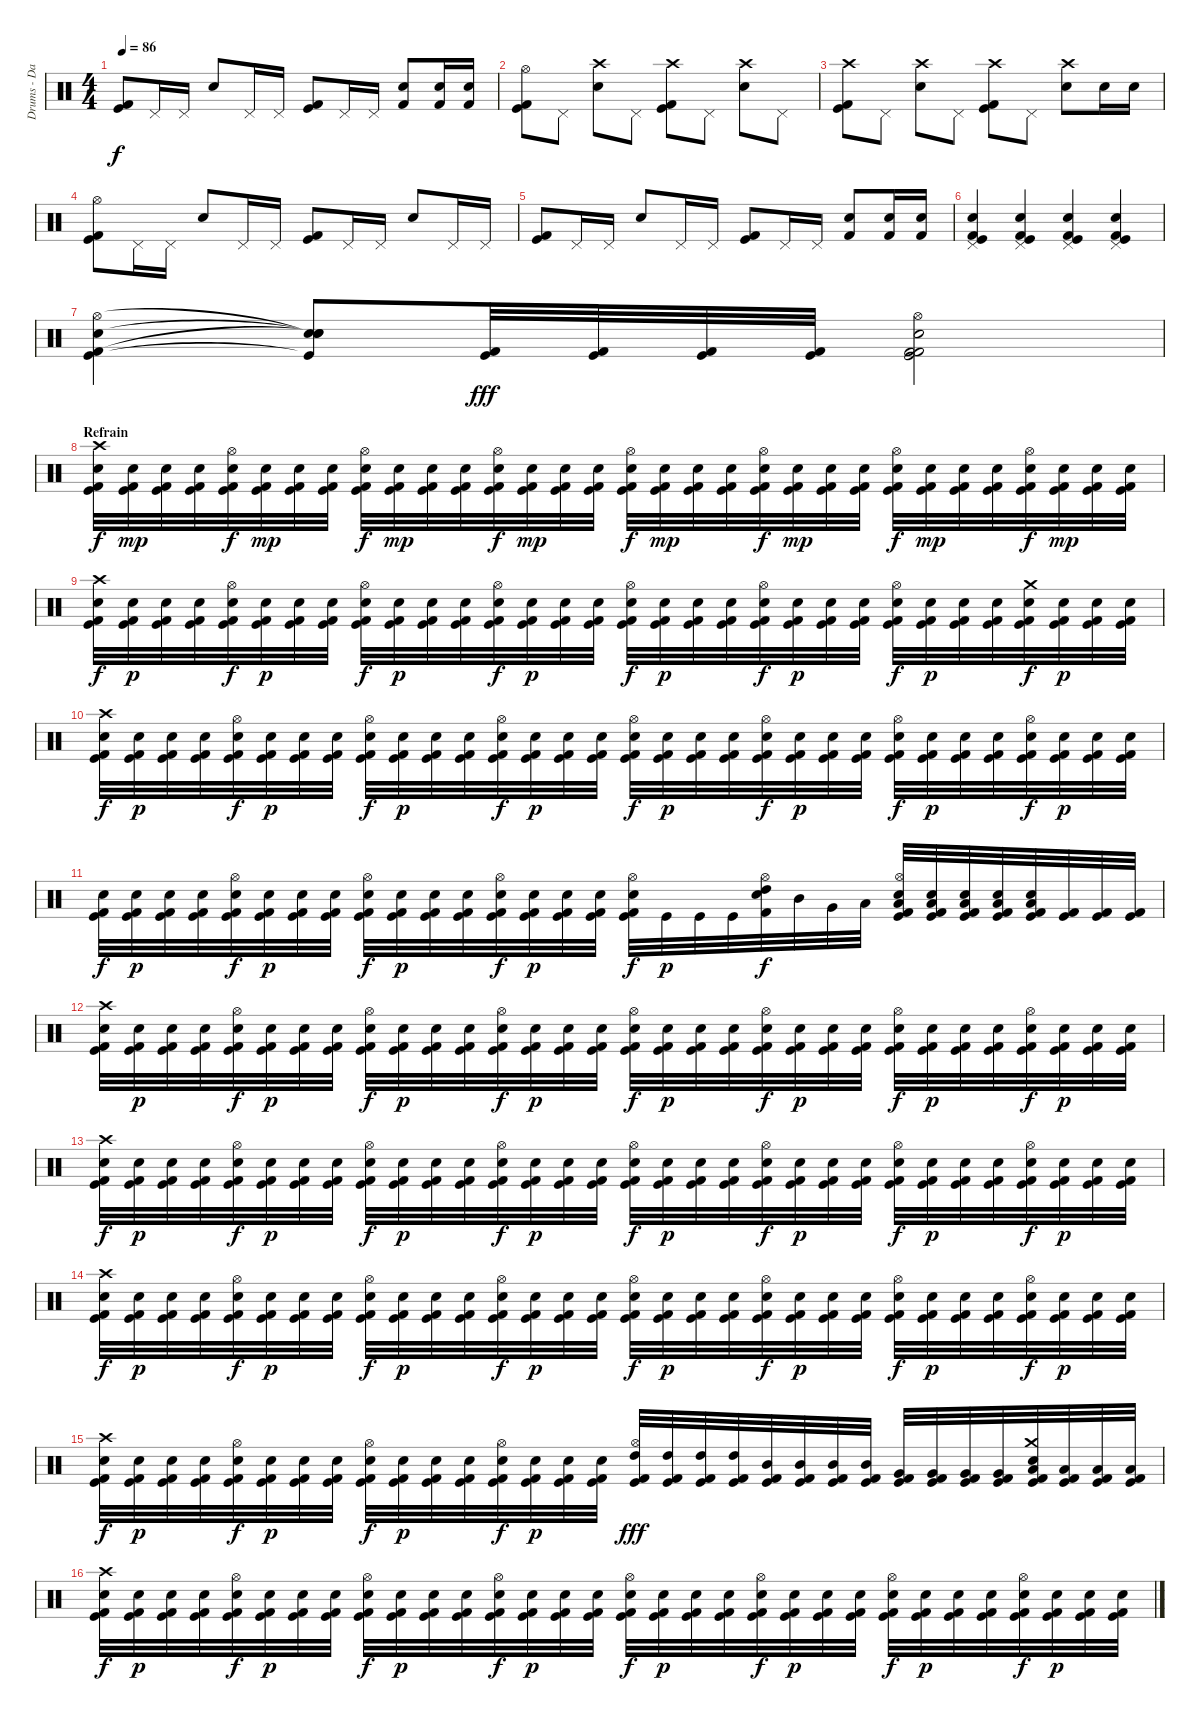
\track ("Drums - Daniel Zimmermann" "Drums - Da") {instrument percussion}
\staff {score}
\articulation defaults
\ts (4 4)
\tempo 86
\clef neutral
\ks c
("Kick (hit)" "Kick (hit) 2").8{dy f} "Pedal Hi-Hat (hit)".16 "Pedal Hi-Hat (hit)".16 "Electric Snare (hit)".8 "Pedal Hi-Hat (hit)".16 "Pedal Hi-Hat (hit)".16 ("Kick (hit)" "Kick (hit) 2").8 "Pedal Hi-Hat (hit)".16 "Pedal Hi-Hat (hit)".16 ("Kick (hit) 2" "Electric Snare (hit)").8 ("Kick (hit) 2" "Electric Snare (hit)").16 ("Kick (hit) 2" "Electric Snare (hit)").16 |
("Hi-Hat (open)" "Kick (hit)" "Kick (hit) 2").8 "Pedal Hi-Hat (hit)".8 ("Crash high (hit)" "Electric Snare (hit)").8 "Pedal Hi-Hat (hit)".8 ("Crash high (hit)" "Kick (hit)" "Kick (hit) 2").8 "Pedal Hi-Hat (hit)".8 ("Crash high (hit)" "Electric Snare (hit)").8 "Pedal Hi-Hat (hit)".8 |
("Crash high (hit)" "Kick (hit)" "Kick (hit) 2").8 "Pedal Hi-Hat (hit)".8 ("Crash high (hit)" "Electric Snare (hit)").8 "Pedal Hi-Hat (hit)".8 ("Crash high (hit)" "Kick (hit)" "Kick (hit) 2").8 "Pedal Hi-Hat (hit)".8 ("Crash high (hit)" "Electric Snare (hit)").8 "Electric Snare (hit)".16 "Electric Snare (hit)".16 |
("Kick (hit)" "Kick (hit) 2" "Hi-Hat (open)").8 "Pedal Hi-Hat (hit)".16 "Pedal Hi-Hat (hit)".16 "Electric Snare (hit)".8 "Pedal Hi-Hat (hit)".16 "Pedal Hi-Hat (hit)".16 ("Kick (hit)" "Kick (hit) 2").8 "Pedal Hi-Hat (hit)".16 "Pedal Hi-Hat (hit)".16 "Electric Snare (hit)".8 "Pedal Hi-Hat (hit)".16 "Pedal Hi-Hat (hit)".16 |
("Kick (hit)" "Kick (hit) 2").8 "Pedal Hi-Hat (hit)".16 "Pedal Hi-Hat (hit)".16 "Electric Snare (hit)".8 "Pedal Hi-Hat (hit)".16 "Pedal Hi-Hat (hit)".16 ("Kick (hit)" "Kick (hit) 2").8 "Pedal Hi-Hat (hit)".16 "Pedal Hi-Hat (hit)".16 ("Kick (hit) 2" "Electric Snare (hit)").8 ("Kick (hit) 2" "Electric Snare (hit)").16 ("Kick (hit) 2" "Electric Snare (hit)").16 |
("Kick (hit)" "Kick (hit) 2" "Electric Snare (hit)" "Pedal Hi-Hat (hit)").4 ("Kick (hit)" "Kick (hit) 2" "Electric Snare (hit)" "Pedal Hi-Hat (hit)").4 ("Kick (hit)" "Kick (hit) 2" "Electric Snare (hit)" "Pedal Hi-Hat (hit)").4 ("Kick (hit)" "Kick (hit) 2" "Electric Snare (hit)" "Pedal Hi-Hat (hit)").4 |
("Kick (hit)" "Kick (hit) 2" "Electric Snare (hit)" "Hi-Hat (open)").4 ("Kick (hit)"{t} "Snare (hit)"{t} "Snare (hit)"{t} "Snare (hit)"{t}).8 ("Kick (hit)" "Kick (hit) 2").32{dy fff} ("Kick (hit)" "Kick (hit) 2").32 ("Kick (hit)" "Kick (hit) 2").32 ("Kick (hit)" "Kick (hit) 2").32 ("Kick (hit)" "Kick (hit) 2" "Kick (hit) 2" "Electric Snare (hit)" "Hi-Hat (open)").2 |
\section ("" "Refrain")
("Kick (hit)" "Kick (hit) 2" "Electric Snare (hit)" "Crash high (hit)").32{dy f} ("Kick (hit)" "Kick (hit) 2" "Electric Snare (hit)").32{dy mp} ("Kick (hit)" "Kick (hit) 2" "Electric Snare (hit)").32 ("Kick (hit)" "Kick (hit) 2" "Electric Snare (hit)").32 ("Kick (hit)" "Kick (hit) 2" "Electric Snare (hit)" "Hi-Hat (open)").32{dy f} ("Kick (hit)" "Kick (hit) 2" "Electric Snare (hit)").32{dy mp} ("Kick (hit)" "Kick (hit) 2" "Electric Snare (hit)").32 ("Kick (hit)" "Kick (hit) 2" "Electric Snare (hit)").32 ("Kick (hit)" "Kick (hit) 2" "Electric Snare (hit)" "Hi-Hat (open)").32{dy f} ("Kick (hit)" "Kick (hit) 2" "Electric Snare (hit)").32{dy mp} ("Kick (hit)" "Kick (hit) 2" "Electric Snare (hit)").32 ("Kick (hit)" "Kick (hit) 2" "Electric Snare (hit)").32 ("Kick (hit)" "Kick (hit) 2" "Electric Snare (hit)" "Hi-Hat (open)").32{dy f} ("Kick (hit)" "Kick (hit) 2" "Electric Snare (hit)").32{dy mp} ("Kick (hit)" "Kick (hit) 2" "Electric Snare (hit)").32 ("Kick (hit)" "Kick (hit) 2" "Electric Snare (hit)").32 ("Kick (hit)" "Kick (hit) 2" "Electric Snare (hit)" "Hi-Hat (open)").32{dy f} ("Kick (hit)" "Kick (hit) 2" "Electric Snare (hit)").32{dy mp} ("Kick (hit)" "Kick (hit) 2" "Electric Snare (hit)").32 ("Kick (hit)" "Kick (hit) 2" "Electric Snare (hit)").32 ("Kick (hit)" "Kick (hit) 2" "Electric Snare (hit)" "Hi-Hat (open)").32{dy f} ("Kick (hit)" "Kick (hit) 2" "Electric Snare (hit)").32{dy mp} ("Kick (hit)" "Kick (hit) 2" "Electric Snare (hit)").32 ("Kick (hit)" "Kick (hit) 2" "Electric Snare (hit)").32 ("Kick (hit)" "Kick (hit) 2" "Electric Snare (hit)" "Hi-Hat (open)").32{dy f} ("Kick (hit)" "Kick (hit) 2" "Electric Snare (hit)").32{dy mp} ("Kick (hit)" "Kick (hit) 2" "Electric Snare (hit)").32 ("Kick (hit)" "Kick (hit) 2" "Electric Snare (hit)").32 ("Kick (hit)" "Kick (hit) 2" "Electric Snare (hit)" "Hi-Hat (open)").32{dy f} ("Kick (hit)" "Kick (hit) 2" "Electric Snare (hit)").32{dy mp} ("Kick (hit)" "Kick (hit) 2" "Electric Snare (hit)").32 ("Kick (hit)" "Kick (hit) 2" "Electric Snare (hit)").32 |
("Kick (hit)" "Kick (hit) 2" "Electric Snare (hit)" "Crash high (hit)").32{dy f} ("Kick (hit)" "Kick (hit) 2" "Electric Snare (hit)").32{dy p} ("Kick (hit)" "Kick (hit) 2" "Electric Snare (hit)").32 ("Kick (hit)" "Kick (hit) 2" "Electric Snare (hit)").32 ("Kick (hit)" "Kick (hit) 2" "Electric Snare (hit)" "Hi-Hat (open)").32{dy f} ("Kick (hit)" "Kick (hit) 2" "Electric Snare (hit)").32{dy p} ("Kick (hit)" "Kick (hit) 2" "Electric Snare (hit)").32 ("Kick (hit)" "Kick (hit) 2" "Electric Snare (hit)").32 ("Kick (hit)" "Kick (hit) 2" "Electric Snare (hit)" "Hi-Hat (open)").32{dy f} ("Kick (hit)" "Kick (hit) 2" "Electric Snare (hit)").32{dy p} ("Kick (hit)" "Kick (hit) 2" "Electric Snare (hit)").32 ("Kick (hit)" "Kick (hit) 2" "Electric Snare (hit)").32 ("Kick (hit)" "Kick (hit) 2" "Electric Snare (hit)" "Hi-Hat (open)").32{dy f} ("Kick (hit)" "Kick (hit) 2" "Electric Snare (hit)").32{dy p} ("Kick (hit)" "Kick (hit) 2" "Electric Snare (hit)").32 ("Kick (hit)" "Kick (hit) 2" "Electric Snare (hit)").32 ("Kick (hit)" "Kick (hit) 2" "Electric Snare (hit)" "Hi-Hat (open)").32{dy f} ("Kick (hit)" "Kick (hit) 2" "Electric Snare (hit)").32{dy p} ("Kick (hit)" "Kick (hit) 2" "Electric Snare (hit)").32 ("Kick (hit)" "Kick (hit) 2" "Electric Snare (hit)").32 ("Kick (hit)" "Kick (hit) 2" "Electric Snare (hit)" "Hi-Hat (open)").32{dy f} ("Kick (hit)" "Kick (hit) 2" "Electric Snare (hit)").32{dy p} ("Kick (hit)" "Kick (hit) 2" "Electric Snare (hit)").32 ("Kick (hit)" "Kick (hit) 2" "Electric Snare (hit)").32 ("Kick (hit)" "Kick (hit) 2" "Electric Snare (hit)" "Hi-Hat (open)").32{dy f} ("Kick (hit)" "Kick (hit) 2" "Electric Snare (hit)").32{dy p} ("Kick (hit)" "Kick (hit) 2" "Electric Snare (hit)").32 ("Kick (hit)" "Kick (hit) 2" "Electric Snare (hit)").32 ("Kick (hit)" "Kick (hit) 2" "Electric Snare (hit)" "Crash medium (hit)").32{dy f} ("Kick (hit)" "Kick (hit) 2" "Electric Snare (hit)").32{dy p} ("Kick (hit)" "Kick (hit) 2" "Electric Snare (hit)").32 ("Kick (hit)" "Kick (hit) 2" "Electric Snare (hit)").32 |
("Kick (hit)" "Kick (hit) 2" "Electric Snare (hit)" "Crash high (hit)").32{dy f} ("Kick (hit)" "Kick (hit) 2" "Electric Snare (hit)").32{dy p} ("Kick (hit)" "Kick (hit) 2" "Electric Snare (hit)").32 ("Kick (hit)" "Kick (hit) 2" "Electric Snare (hit)").32 ("Kick (hit)" "Kick (hit) 2" "Electric Snare (hit)" "Hi-Hat (open)").32{dy f} ("Kick (hit)" "Kick (hit) 2" "Electric Snare (hit)").32{dy p} ("Kick (hit)" "Kick (hit) 2" "Electric Snare (hit)").32 ("Kick (hit)" "Kick (hit) 2" "Electric Snare (hit)").32 ("Kick (hit)" "Kick (hit) 2" "Electric Snare (hit)" "Hi-Hat (open)").32{dy f} ("Kick (hit)" "Kick (hit) 2" "Electric Snare (hit)").32{dy p} ("Kick (hit)" "Kick (hit) 2" "Electric Snare (hit)").32 ("Kick (hit)" "Kick (hit) 2" "Electric Snare (hit)").32 ("Kick (hit)" "Kick (hit) 2" "Electric Snare (hit)" "Hi-Hat (open)").32{dy f} ("Kick (hit)" "Kick (hit) 2" "Electric Snare (hit)").32{dy p} ("Kick (hit)" "Kick (hit) 2" "Electric Snare (hit)").32 ("Kick (hit)" "Kick (hit) 2" "Electric Snare (hit)").32 ("Kick (hit)" "Kick (hit) 2" "Electric Snare (hit)" "Hi-Hat (open)").32{dy f} ("Kick (hit)" "Kick (hit) 2" "Electric Snare (hit)").32{dy p} ("Kick (hit)" "Kick (hit) 2" "Electric Snare (hit)").32 ("Kick (hit)" "Kick (hit) 2" "Electric Snare (hit)").32 ("Kick (hit)" "Kick (hit) 2" "Electric Snare (hit)" "Hi-Hat (open)").32{dy f} ("Kick (hit)" "Kick (hit) 2" "Electric Snare (hit)").32{dy p} ("Kick (hit)" "Kick (hit) 2" "Electric Snare (hit)").32 ("Kick (hit)" "Kick (hit) 2" "Electric Snare (hit)").32 ("Kick (hit)" "Kick (hit) 2" "Electric Snare (hit)" "Hi-Hat (open)").32{dy f} ("Kick (hit)" "Kick (hit) 2" "Electric Snare (hit)").32{dy p} ("Kick (hit)" "Kick (hit) 2" "Electric Snare (hit)").32 ("Kick (hit)" "Kick (hit) 2" "Electric Snare (hit)").32 ("Kick (hit)" "Kick (hit) 2" "Electric Snare (hit)" "Hi-Hat (open)").32{dy f} ("Kick (hit)" "Kick (hit) 2" "Electric Snare (hit)").32{dy p} ("Kick (hit)" "Kick (hit) 2" "Electric Snare (hit)").32 ("Kick (hit)" "Kick (hit) 2" "Electric Snare (hit)").32 |
("Kick (hit)" "Kick (hit) 2" "Electric Snare (hit)").32{dy f} ("Kick (hit)" "Kick (hit) 2" "Electric Snare (hit)").32{dy p} ("Kick (hit)" "Kick (hit) 2" "Electric Snare (hit)").32 ("Kick (hit)" "Kick (hit) 2" "Electric Snare (hit)").32 ("Kick (hit)" "Kick (hit) 2" "Electric Snare (hit)" "Hi-Hat (open)").32{dy f} ("Kick (hit)" "Kick (hit) 2" "Electric Snare (hit)").32{dy p} ("Kick (hit)" "Kick (hit) 2" "Electric Snare (hit)").32 ("Kick (hit)" "Kick (hit) 2" "Electric Snare (hit)").32 ("Kick (hit)" "Kick (hit) 2" "Electric Snare (hit)" "Hi-Hat (open)").32{dy f} ("Kick (hit)" "Kick (hit) 2" "Electric Snare (hit)").32{dy p} ("Kick (hit)" "Kick (hit) 2" "Electric Snare (hit)").32 ("Kick (hit)" "Kick (hit) 2" "Electric Snare (hit)").32 ("Kick (hit)" "Kick (hit) 2" "Electric Snare (hit)" "Hi-Hat (open)").32{dy f} ("Kick (hit)" "Kick (hit) 2" "Electric Snare (hit)").32{dy p} ("Kick (hit)" "Kick (hit) 2" "Electric Snare (hit)").32 ("Kick (hit)" "Kick (hit) 2" "Electric Snare (hit)").32 ("Kick (hit)" "Kick (hit) 2" "Electric Snare (hit)" "Hi-Hat (open)").32{dy f} "Kick (hit)".32{dy p} "Kick (hit)".32 "Kick (hit)".32 ("High Tom (hit)" "Kick (hit) 2" "Electric Snare (hit)" "Hi-Hat (open)").32{dy f} "Mid Tom (hit)".32 "Very Low Tom (hit)".32 "Low Floor Tom (hit)".32 ("Kick (hit)" "Kick (hit) 2" "Electric Snare (hit)" "Hi-Hat (open)" "Low Floor Tom (hit)").32 ("Kick (hit)" "Kick (hit) 2" "Electric Snare (hit)" "Low Floor Tom (hit)").32 ("Kick (hit)" "Kick (hit) 2" "Electric Snare (hit)" "Low Floor Tom (hit)").32 ("Kick (hit)" "Kick (hit) 2" "Electric Snare (hit)" "Low Floor Tom (hit)").32 ("Kick (hit)" "Kick (hit) 2" "Electric Snare (hit)" "Low Floor Tom (hit)").32 ("Kick (hit)" "Kick (hit) 2").32 ("Kick (hit)" "Kick (hit) 2").32 ("Kick (hit)" "Kick (hit) 2").32 |
("Kick (hit)" "Kick (hit) 2" "Electric Snare (hit)" "Crash high (hit)").32 ("Kick (hit)" "Kick (hit) 2" "Electric Snare (hit)").32{dy p} ("Kick (hit)" "Kick (hit) 2" "Electric Snare (hit)").32 ("Kick (hit)" "Kick (hit) 2" "Electric Snare (hit)").32 ("Kick (hit)" "Kick (hit) 2" "Electric Snare (hit)" "Hi-Hat (open)").32{dy f} ("Kick (hit)" "Kick (hit) 2" "Electric Snare (hit)").32{dy p} ("Kick (hit)" "Kick (hit) 2" "Electric Snare (hit)").32 ("Kick (hit)" "Kick (hit) 2" "Electric Snare (hit)").32 ("Kick (hit)" "Kick (hit) 2" "Electric Snare (hit)" "Hi-Hat (open)").32{dy f} ("Kick (hit)" "Kick (hit) 2" "Electric Snare (hit)").32{dy p} ("Kick (hit)" "Kick (hit) 2" "Electric Snare (hit)").32 ("Kick (hit)" "Kick (hit) 2" "Electric Snare (hit)").32 ("Kick (hit)" "Kick (hit) 2" "Electric Snare (hit)" "Hi-Hat (open)").32{dy f} ("Kick (hit)" "Kick (hit) 2" "Electric Snare (hit)").32{dy p} ("Kick (hit)" "Kick (hit) 2" "Electric Snare (hit)").32 ("Kick (hit)" "Kick (hit) 2" "Electric Snare (hit)").32 ("Kick (hit)" "Kick (hit) 2" "Electric Snare (hit)" "Hi-Hat (open)").32{dy f} ("Kick (hit)" "Kick (hit) 2" "Electric Snare (hit)").32{dy p} ("Kick (hit)" "Kick (hit) 2" "Electric Snare (hit)").32 ("Kick (hit)" "Kick (hit) 2" "Electric Snare (hit)").32 ("Kick (hit)" "Kick (hit) 2" "Electric Snare (hit)" "Hi-Hat (open)").32{dy f} ("Kick (hit)" "Kick (hit) 2" "Electric Snare (hit)").32{dy p} ("Kick (hit)" "Kick (hit) 2" "Electric Snare (hit)").32 ("Kick (hit)" "Kick (hit) 2" "Electric Snare (hit)").32 ("Kick (hit)" "Kick (hit) 2" "Electric Snare (hit)" "Hi-Hat (open)").32{dy f} ("Kick (hit)" "Kick (hit) 2" "Electric Snare (hit)").32{dy p} ("Kick (hit)" "Kick (hit) 2" "Electric Snare (hit)").32 ("Kick (hit)" "Kick (hit) 2" "Electric Snare (hit)").32 ("Kick (hit)" "Kick (hit) 2" "Electric Snare (hit)" "Hi-Hat (open)").32{dy f} ("Kick (hit)" "Kick (hit) 2" "Electric Snare (hit)").32{dy p} ("Kick (hit)" "Kick (hit) 2" "Electric Snare (hit)").32 ("Kick (hit)" "Kick (hit) 2" "Electric Snare (hit)").32 |
("Kick (hit)" "Kick (hit) 2" "Electric Snare (hit)" "Crash high (hit)").32{dy f} ("Kick (hit)" "Kick (hit) 2" "Electric Snare (hit)").32{dy p} ("Kick (hit)" "Kick (hit) 2" "Electric Snare (hit)").32 ("Kick (hit)" "Kick (hit) 2" "Electric Snare (hit)").32 ("Kick (hit)" "Kick (hit) 2" "Electric Snare (hit)" "Hi-Hat (open)").32{dy f} ("Kick (hit)" "Kick (hit) 2" "Electric Snare (hit)").32{dy p} ("Kick (hit)" "Kick (hit) 2" "Electric Snare (hit)").32 ("Kick (hit)" "Kick (hit) 2" "Electric Snare (hit)").32 ("Kick (hit)" "Kick (hit) 2" "Electric Snare (hit)" "Hi-Hat (open)").32{dy f} ("Kick (hit)" "Kick (hit) 2" "Electric Snare (hit)").32{dy p} ("Kick (hit)" "Kick (hit) 2" "Electric Snare (hit)").32 ("Kick (hit)" "Kick (hit) 2" "Electric Snare (hit)").32 ("Kick (hit)" "Kick (hit) 2" "Electric Snare (hit)" "Hi-Hat (open)").32{dy f} ("Kick (hit)" "Kick (hit) 2" "Electric Snare (hit)").32{dy p} ("Kick (hit)" "Kick (hit) 2" "Electric Snare (hit)").32 ("Kick (hit)" "Kick (hit) 2" "Electric Snare (hit)").32 ("Kick (hit)" "Kick (hit) 2" "Electric Snare (hit)" "Hi-Hat (open)").32{dy f} ("Kick (hit)" "Kick (hit) 2" "Electric Snare (hit)").32{dy p} ("Kick (hit)" "Kick (hit) 2" "Electric Snare (hit)").32 ("Kick (hit)" "Kick (hit) 2" "Electric Snare (hit)").32 ("Kick (hit)" "Kick (hit) 2" "Electric Snare (hit)" "Hi-Hat (open)").32{dy f} ("Kick (hit)" "Kick (hit) 2" "Electric Snare (hit)").32{dy p} ("Kick (hit)" "Kick (hit) 2" "Electric Snare (hit)").32 ("Kick (hit)" "Kick (hit) 2" "Electric Snare (hit)").32 ("Kick (hit)" "Kick (hit) 2" "Electric Snare (hit)" "Hi-Hat (open)").32{dy f} ("Kick (hit)" "Kick (hit) 2" "Electric Snare (hit)").32{dy p} ("Kick (hit)" "Kick (hit) 2" "Electric Snare (hit)").32 ("Kick (hit)" "Kick (hit) 2" "Electric Snare (hit)").32 ("Kick (hit)" "Kick (hit) 2" "Electric Snare (hit)" "Hi-Hat (open)").32{dy f} ("Kick (hit)" "Kick (hit) 2" "Electric Snare (hit)").32{dy p} ("Kick (hit)" "Kick (hit) 2" "Electric Snare (hit)").32 ("Kick (hit)" "Kick (hit) 2" "Electric Snare (hit)").32 |
("Kick (hit)" "Kick (hit) 2" "Electric Snare (hit)" "Crash high (hit)").32{dy f} ("Kick (hit)" "Kick (hit) 2" "Electric Snare (hit)").32{dy p} ("Kick (hit)" "Kick (hit) 2" "Electric Snare (hit)").32 ("Kick (hit)" "Kick (hit) 2" "Electric Snare (hit)").32 ("Kick (hit)" "Kick (hit) 2" "Electric Snare (hit)" "Hi-Hat (open)").32{dy f} ("Kick (hit)" "Kick (hit) 2" "Electric Snare (hit)").32{dy p} ("Kick (hit)" "Kick (hit) 2" "Electric Snare (hit)").32 ("Kick (hit)" "Kick (hit) 2" "Electric Snare (hit)").32 ("Kick (hit)" "Kick (hit) 2" "Electric Snare (hit)" "Hi-Hat (open)").32{dy f} ("Kick (hit)" "Kick (hit) 2" "Electric Snare (hit)").32{dy p} ("Kick (hit)" "Kick (hit) 2" "Electric Snare (hit)").32 ("Kick (hit)" "Kick (hit) 2" "Electric Snare (hit)").32 ("Kick (hit)" "Kick (hit) 2" "Electric Snare (hit)" "Hi-Hat (open)").32{dy f} ("Kick (hit)" "Kick (hit) 2" "Electric Snare (hit)").32{dy p} ("Kick (hit)" "Kick (hit) 2" "Electric Snare (hit)").32 ("Kick (hit)" "Kick (hit) 2" "Electric Snare (hit)").32 ("Kick (hit)" "Kick (hit) 2" "Electric Snare (hit)" "Hi-Hat (open)").32{dy f} ("Kick (hit)" "Kick (hit) 2" "Electric Snare (hit)").32{dy p} ("Kick (hit)" "Kick (hit) 2" "Electric Snare (hit)").32 ("Kick (hit)" "Kick (hit) 2" "Electric Snare (hit)").32 ("Kick (hit)" "Kick (hit) 2" "Electric Snare (hit)" "Hi-Hat (open)").32{dy f} ("Kick (hit)" "Kick (hit) 2" "Electric Snare (hit)").32{dy p} ("Kick (hit)" "Kick (hit) 2" "Electric Snare (hit)").32 ("Kick (hit)" "Kick (hit) 2" "Electric Snare (hit)").32 ("Kick (hit)" "Kick (hit) 2" "Electric Snare (hit)" "Hi-Hat (open)").32{dy f} ("Kick (hit)" "Kick (hit) 2" "Electric Snare (hit)").32{dy p} ("Kick (hit)" "Kick (hit) 2" "Electric Snare (hit)").32 ("Kick (hit)" "Kick (hit) 2" "Electric Snare (hit)").32 ("Kick (hit)" "Kick (hit) 2" "Electric Snare (hit)" "Hi-Hat (open)").32{dy f} ("Kick (hit)" "Kick (hit) 2" "Electric Snare (hit)").32{dy p} ("Kick (hit)" "Kick (hit) 2" "Electric Snare (hit)").32 ("Kick (hit)" "Kick (hit) 2" "Electric Snare (hit)").32 |
("Kick (hit)" "Kick (hit) 2" "Electric Snare (hit)" "Crash high (hit)").32{dy f} ("Kick (hit)" "Kick (hit) 2" "Electric Snare (hit)").32{dy p} ("Kick (hit)" "Kick (hit) 2" "Electric Snare (hit)").32 ("Kick (hit)" "Kick (hit) 2" "Electric Snare (hit)").32 ("Kick (hit)" "Kick (hit) 2" "Electric Snare (hit)" "Hi-Hat (open)").32{dy f} ("Kick (hit)" "Kick (hit) 2" "Electric Snare (hit)").32{dy p} ("Kick (hit)" "Kick (hit) 2" "Electric Snare (hit)").32 ("Kick (hit)" "Kick (hit) 2" "Electric Snare (hit)").32 ("Kick (hit)" "Kick (hit) 2" "Electric Snare (hit)" "Hi-Hat (open)").32{dy f} ("Kick (hit)" "Kick (hit) 2" "Electric Snare (hit)").32{dy p} ("Kick (hit)" "Kick (hit) 2" "Electric Snare (hit)").32 ("Kick (hit)" "Kick (hit) 2" "Electric Snare (hit)").32 ("Kick (hit)" "Kick (hit) 2" "Electric Snare (hit)" "Hi-Hat (open)").32{dy f} ("Kick (hit)" "Kick (hit) 2" "Electric Snare (hit)").32{dy p} ("Kick (hit)" "Kick (hit) 2" "Electric Snare (hit)").32 ("Kick (hit)" "Kick (hit) 2" "Electric Snare (hit)").32 ("Kick (hit)" "Kick (hit) 2" "High Tom (hit)" "Hi-Hat (open)").32{dy fff} ("Kick (hit)" "Kick (hit) 2" "High Tom (hit)").32 ("Kick (hit)" "Kick (hit) 2" "High Tom (hit)").32 ("Kick (hit)" "Kick (hit) 2" "High Tom (hit)").32 ("Kick (hit)" "Kick (hit) 2" "Mid Tom (hit)").32 ("Kick (hit)" "Kick (hit) 2" "Mid Tom (hit)").32 ("Kick (hit)" "Kick (hit) 2" "Mid Tom (hit)").32 ("Kick (hit)" "Kick (hit) 2" "Mid Tom (hit)").32 ("Kick (hit)" "Kick (hit) 2" "Very Low Tom (hit)").32 ("Kick (hit)" "Kick (hit) 2" "Very Low Tom (hit)").32 ("Kick (hit)" "Kick (hit) 2" "Very Low Tom (hit)").32 ("Kick (hit)" "Kick (hit) 2" "Very Low Tom (hit)").32 ("Kick (hit)" "Kick (hit) 2" "Low Floor Tom (hit)" "Electric Snare (hit)" "Crash medium (hit)").32 ("Kick (hit)" "Kick (hit) 2" "Low Floor Tom (hit)").32 ("Kick (hit)" "Kick (hit) 2" "Low Floor Tom (hit)").32 ("Kick (hit)" "Kick (hit) 2" "Low Floor Tom (hit)").32 |
("Kick (hit)" "Kick (hit) 2" "Electric Snare (hit)" "Crash high (hit)").32{dy f} ("Kick (hit)" "Kick (hit) 2" "Electric Snare (hit)").32{dy p} ("Kick (hit)" "Kick (hit) 2" "Electric Snare (hit)").32 ("Kick (hit)" "Kick (hit) 2" "Electric Snare (hit)").32 ("Kick (hit)" "Kick (hit) 2" "Electric Snare (hit)" "Hi-Hat (open)").32{dy f} ("Kick (hit)" "Kick (hit) 2" "Electric Snare (hit)").32{dy p} ("Kick (hit)" "Kick (hit) 2" "Electric Snare (hit)").32 ("Kick (hit)" "Kick (hit) 2" "Electric Snare (hit)").32 ("Kick (hit)" "Kick (hit) 2" "Electric Snare (hit)" "Hi-Hat (open)").32{dy f} ("Kick (hit)" "Kick (hit) 2" "Electric Snare (hit)").32{dy p} ("Kick (hit)" "Kick (hit) 2" "Electric Snare (hit)").32 ("Kick (hit)" "Kick (hit) 2" "Electric Snare (hit)").32 ("Kick (hit)" "Kick (hit) 2" "Electric Snare (hit)" "Hi-Hat (open)").32{dy f} ("Kick (hit)" "Kick (hit) 2" "Electric Snare (hit)").32{dy p} ("Kick (hit)" "Kick (hit) 2" "Electric Snare (hit)").32 ("Kick (hit)" "Kick (hit) 2" "Electric Snare (hit)").32 ("Kick (hit)" "Kick (hit) 2" "Electric Snare (hit)" "Hi-Hat (open)").32{dy f} ("Kick (hit)" "Kick (hit) 2" "Electric Snare (hit)").32{dy p} ("Kick (hit)" "Kick (hit) 2" "Electric Snare (hit)").32 ("Kick (hit)" "Kick (hit) 2" "Electric Snare (hit)").32 ("Kick (hit)" "Kick (hit) 2" "Electric Snare (hit)" "Hi-Hat (open)").32{dy f} ("Kick (hit)" "Kick (hit) 2" "Electric Snare (hit)").32{dy p} ("Kick (hit)" "Kick (hit) 2" "Electric Snare (hit)").32 ("Kick (hit)" "Kick (hit) 2" "Electric Snare (hit)").32 ("Kick (hit)" "Kick (hit) 2" "Electric Snare (hit)" "Hi-Hat (open)").32{dy f} ("Kick (hit)" "Kick (hit) 2" "Electric Snare (hit)").32{dy p} ("Kick (hit)" "Kick (hit) 2" "Electric Snare (hit)").32 ("Kick (hit)" "Kick (hit) 2" "Electric Snare (hit)").32 ("Kick (hit)" "Kick (hit) 2" "Electric Snare (hit)" "Hi-Hat (open)").32{dy f} ("Kick (hit)" "Kick (hit) 2" "Electric Snare (hit)").32{dy p} ("Kick (hit)" "Kick (hit) 2" "Electric Snare (hit)").32 ("Kick (hit)" "Kick (hit) 2" "Electric Snare (hit)").32
